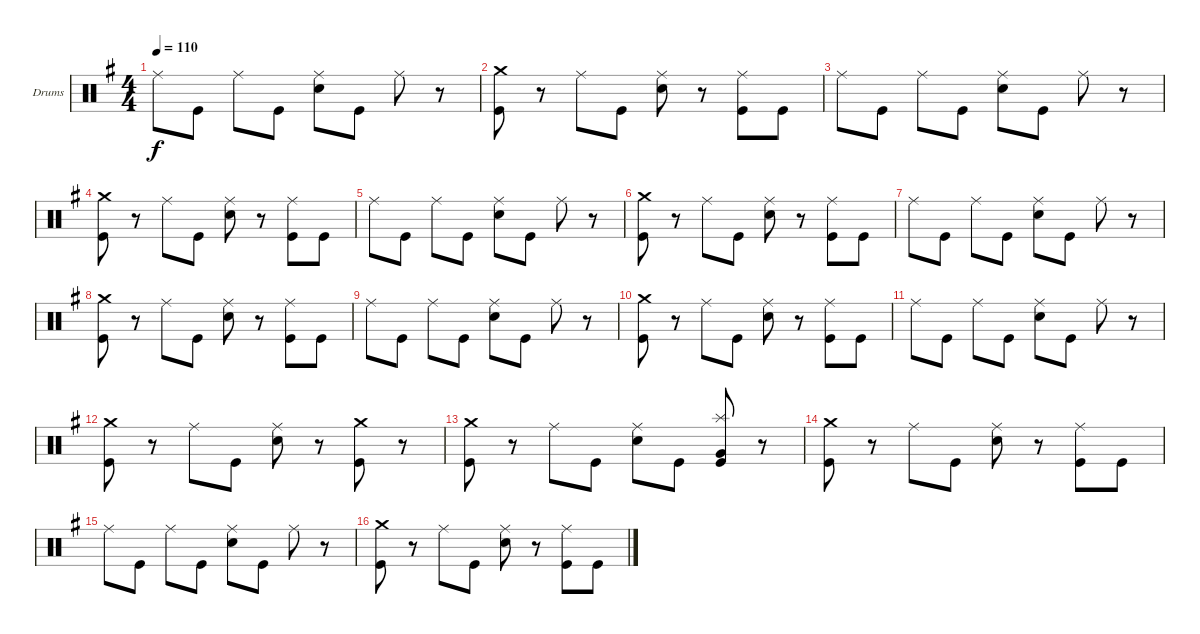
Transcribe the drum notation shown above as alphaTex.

\bracketExtendMode groupsimilarinstruments
\firstSystemTrackNameOrientation horizontal
\otherSystemsTrackNameOrientation horizontal
\track ("Drumkit" "Drums") {instrument percussion}
\staff {score}
\articulation defaults
\ts (4 4)
\tempo 110
\clef neutral
\ks g "Ride (middle)".8{dy f} "Kick (hit)".8 "Ride (middle)".8 "Kick (hit)".8
("Ride (middle)" "Snare (hit) 2").8 "Kick (hit)".8 "Ride (middle)".8 r.8 |
("Crash medium (hit)" "Kick (hit)").8 r.8 "Ride (middle)".8 "Kick (hit)".8 ("Ride (middle)" "Snare (hit) 2").8 r.8 ("Ride (middle)" "Kick (hit)").8 "Kick (hit)".8 |
"Ride (middle)".8 "Kick (hit)".8 "Ride (middle)".8 "Kick (hit)".8 ("Ride (middle)" "Snare (hit) 2").8 "Kick (hit)".8 "Ride (middle)".8 r.8 |
("Crash medium (hit)" "Kick (hit)").8 r.8 "Ride (middle)".8 "Kick (hit)".8 ("Ride (middle)" "Snare (hit) 2").8 r.8 ("Ride (middle)" "Kick (hit)").8 "Kick (hit)".8 |
"Ride (middle)".8 "Kick (hit)".8 "Ride (middle)".8 "Kick (hit)".8 ("Ride (middle)" "Snare (hit) 2").8 "Kick (hit)".8 "Ride (middle)".8 r.8 |
("Crash medium (hit)" "Kick (hit)").8 r.8 "Ride (middle)".8 "Kick (hit)".8 ("Ride (middle)" "Snare (hit) 2").8 r.8 ("Ride (middle)" "Kick (hit)").8 "Kick (hit)".8 |
"Ride (middle)".8 "Kick (hit)".8 "Ride (middle)".8 "Kick (hit)".8 ("Ride (middle)" "Snare (hit) 2").8 "Kick (hit)".8 "Ride (middle)".8 r.8 |
("Crash medium (hit)" "Kick (hit)").8 r.8 "Ride (middle)".8 "Kick (hit)".8 ("Ride (middle)" "Snare (hit) 2").8 r.8 ("Ride (middle)" "Kick (hit)").8 "Kick (hit)".8 |
"Ride (middle)".8 "Kick (hit)".8 "Ride (middle)".8 "Kick (hit)".8 ("Ride (middle)" "Snare (hit) 2").8 "Kick (hit)".8 "Ride (middle)".8 r.8 |
("Crash medium (hit)" "Kick (hit)").8 r.8 "Ride (middle)".8 "Kick (hit)".8 ("Ride (middle)" "Snare (hit) 2").8 r.8 ("Ride (middle)" "Kick (hit)").8 "Kick (hit)".8 |
"Ride (middle)".8 "Kick (hit)".8 "Ride (middle)".8 "Kick (hit)".8 ("Ride (middle)" "Snare (hit) 2").8 "Kick (hit)".8 "Ride (middle)".8 r.8 |
("Crash medium (hit)" "Kick (hit)").8 r.8 "Ride (middle)".8 "Kick (hit)".8 ("Ride (middle)" "Snare (hit) 2").8 r.8 ("Crash medium (hit)" "Kick (hit)").8 r.8 |
("Crash medium (hit)" "Kick (hit)").8 r.8 "Ride (middle)".8 "Kick (hit)".8 ("Ride (middle)" "Snare (hit) 2").8 "Kick (hit)".8 ("Splash (hit)" "Very Low Tom (hit)" "Kick (hit)").8 r.8 |
("Crash medium (hit)" "Kick (hit)").8 r.8 "Ride (middle)".8 "Kick (hit)".8 ("Ride (middle)" "Snare (hit) 2").8 r.8 ("Ride (middle)" "Kick (hit)").8 "Kick (hit)".8 |
"Ride (middle)".8 "Kick (hit)".8 "Ride (middle)".8 "Kick (hit)".8 ("Ride (middle)" "Snare (hit) 2").8 "Kick (hit)".8 "Ride (middle)".8 r.8 |
("Crash medium (hit)" "Kick (hit)").8 r.8 "Ride (middle)".8 "Kick (hit)".8 ("Ride (middle)" "Snare (hit) 2").8 r.8 ("Ride (middle)" "Kick (hit)").8 "Kick (hit)".8
